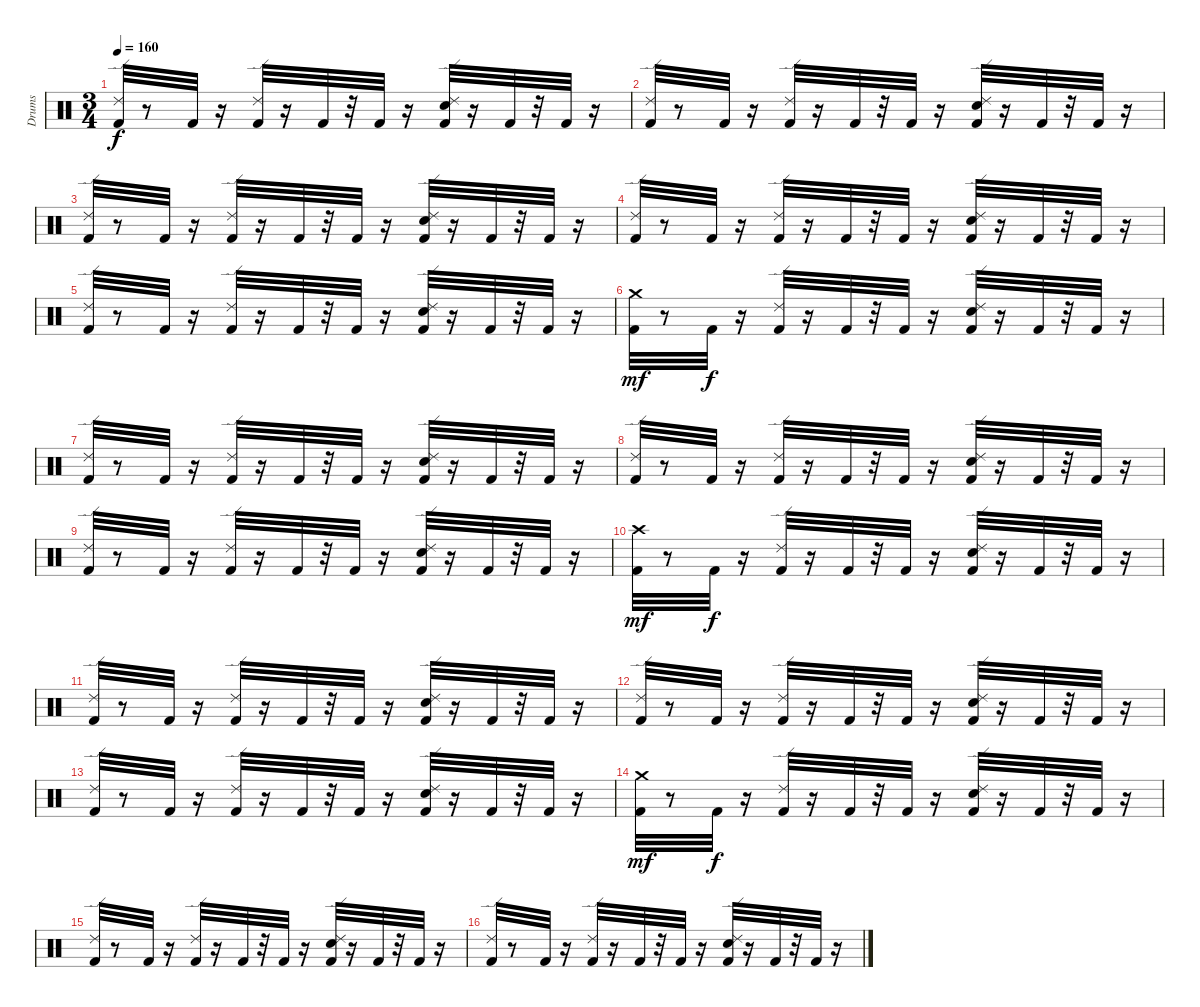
\track ("Drums" "Drums") {instrument percussion}
\staff {score}
\articulation defaults
\ts (3 4)
\tempo 160
\clef neutral
\ks c
("Kick (hit) 2" "Ride (edge) 2").32{dy f} r.8 "Kick (hit) 2".32 r.16 ("Kick (hit) 2" "Ride (edge) 2").32 r.16 "Kick (hit) 2".32 r.32 "Kick (hit) 2".32 r.16 ("Kick (hit) 2" "Snare (hit) 2" "Ride (edge) 2").32 r.16 "Kick (hit) 2".32 r.32 "Kick (hit) 2".32 r.16 |
("Kick (hit) 2" "Ride (edge) 2").32 r.8 "Kick (hit) 2".32 r.16 ("Kick (hit) 2" "Ride (edge) 2").32 r.16 "Kick (hit) 2".32 r.32 "Kick (hit) 2".32 r.16 ("Kick (hit) 2" "Snare (hit) 2" "Ride (edge) 2").32 r.16 "Kick (hit) 2".32 r.32 "Kick (hit) 2".32 r.16 |
("Kick (hit) 2" "Ride (edge) 2").32 r.8 "Kick (hit) 2".32 r.16 ("Kick (hit) 2" "Ride (edge) 2").32 r.16 "Kick (hit) 2".32 r.32 "Kick (hit) 2".32 r.16 ("Kick (hit) 2" "Snare (hit) 2" "Ride (edge) 2").32 r.16 "Kick (hit) 2".32 r.32 "Kick (hit) 2".32 r.16 |
("Kick (hit) 2" "Ride (edge) 2").32 r.8 "Kick (hit) 2".32 r.16 ("Kick (hit) 2" "Ride (edge) 2").32 r.16 "Kick (hit) 2".32 r.32 "Kick (hit) 2".32 r.16 ("Kick (hit) 2" "Snare (hit) 2" "Ride (edge) 2").32 r.16 "Kick (hit) 2".32 r.32 "Kick (hit) 2".32 r.16 |
("Kick (hit) 2" "Ride (edge) 2").32 r.8 "Kick (hit) 2".32 r.16 ("Kick (hit) 2" "Ride (edge) 2").32 r.16 "Kick (hit) 2".32 r.32 "Kick (hit) 2".32 r.16 ("Kick (hit) 2" "Snare (hit) 2" "Ride (edge) 2").32 r.16 "Kick (hit) 2".32 r.32 "Kick (hit) 2".32 r.16 |
("Kick (hit) 2" "Crash medium (hit)").32{dy mf} r.8 "Kick (hit) 2".32{dy f} r.16 ("Kick (hit) 2" "Ride (edge) 2").32 r.16 "Kick (hit) 2".32 r.32 "Kick (hit) 2".32 r.16 ("Kick (hit) 2" "Snare (hit) 2" "Ride (edge) 2").32 r.16 "Kick (hit) 2".32 r.32 "Kick (hit) 2".32 r.16 |
("Kick (hit) 2" "Ride (edge) 2").32 r.8 "Kick (hit) 2".32 r.16 ("Kick (hit) 2" "Ride (edge) 2").32 r.16 "Kick (hit) 2".32 r.32 "Kick (hit) 2".32 r.16 ("Kick (hit) 2" "Snare (hit) 2" "Ride (edge) 2").32 r.16 "Kick (hit) 2".32 r.32 "Kick (hit) 2".32 r.16 |
("Kick (hit) 2" "Ride (edge) 2").32 r.8 "Kick (hit) 2".32 r.16 ("Kick (hit) 2" "Ride (edge) 2").32 r.16 "Kick (hit) 2".32 r.32 "Kick (hit) 2".32 r.16 ("Kick (hit) 2" "Snare (hit) 2" "Ride (edge) 2").32 r.16 "Kick (hit) 2".32 r.32 "Kick (hit) 2".32 r.16 |
("Kick (hit) 2" "Ride (edge) 2").32 r.8 "Kick (hit) 2".32 r.16 ("Kick (hit) 2" "Ride (edge) 2").32 r.16 "Kick (hit) 2".32 r.32 "Kick (hit) 2".32 r.16 ("Kick (hit) 2" "Snare (hit) 2" "Ride (edge) 2").32 r.16 "Kick (hit) 2".32 r.32 "Kick (hit) 2".32 r.16 |
("Kick (hit) 2" "Crash high (hit)").32{dy mf} r.8 "Kick (hit) 2".32{dy f} r.16 ("Kick (hit) 2" "Ride (edge) 2").32 r.16 "Kick (hit) 2".32 r.32 "Kick (hit) 2".32 r.16 ("Kick (hit) 2" "Snare (hit) 2" "Ride (edge) 2").32 r.16 "Kick (hit) 2".32 r.32 "Kick (hit) 2".32 r.16 |
("Kick (hit) 2" "Ride (edge) 2").32 r.8 "Kick (hit) 2".32 r.16 ("Kick (hit) 2" "Ride (edge) 2").32 r.16 "Kick (hit) 2".32 r.32 "Kick (hit) 2".32 r.16 ("Kick (hit) 2" "Snare (hit) 2" "Ride (edge) 2").32 r.16 "Kick (hit) 2".32 r.32 "Kick (hit) 2".32 r.16 |
("Kick (hit) 2" "Ride (edge) 2").32 r.8 "Kick (hit) 2".32 r.16 ("Kick (hit) 2" "Ride (edge) 2").32 r.16 "Kick (hit) 2".32 r.32 "Kick (hit) 2".32 r.16 ("Kick (hit) 2" "Snare (hit) 2" "Ride (edge) 2").32 r.16 "Kick (hit) 2".32 r.32 "Kick (hit) 2".32 r.16 |
("Kick (hit) 2" "Ride (edge) 2").32 r.8 "Kick (hit) 2".32 r.16 ("Kick (hit) 2" "Ride (edge) 2").32 r.16 "Kick (hit) 2".32 r.32 "Kick (hit) 2".32 r.16 ("Kick (hit) 2" "Snare (hit) 2" "Ride (edge) 2").32 r.16 "Kick (hit) 2".32 r.32 "Kick (hit) 2".32 r.16 |
("Kick (hit) 2" "Crash medium (hit)").32{dy mf} r.8 "Kick (hit) 2".32{dy f} r.16 ("Kick (hit) 2" "Ride (edge) 2").32 r.16 "Kick (hit) 2".32 r.32 "Kick (hit) 2".32 r.16 ("Kick (hit) 2" "Snare (hit) 2" "Ride (edge) 2").32 r.16 "Kick (hit) 2".32 r.32 "Kick (hit) 2".32 r.16 |
("Kick (hit) 2" "Ride (edge) 2").32 r.8 "Kick (hit) 2".32 r.16 ("Kick (hit) 2" "Ride (edge) 2").32 r.16 "Kick (hit) 2".32 r.32 "Kick (hit) 2".32 r.16 ("Kick (hit) 2" "Snare (hit) 2" "Ride (edge) 2").32 r.16 "Kick (hit) 2".32 r.32 "Kick (hit) 2".32 r.16 |
("Kick (hit) 2" "Ride (edge) 2").32 r.8 "Kick (hit) 2".32 r.16 ("Kick (hit) 2" "Ride (edge) 2").32 r.16 "Kick (hit) 2".32 r.32 "Kick (hit) 2".32 r.16 ("Kick (hit) 2" "Snare (hit) 2" "Ride (edge) 2").32 r.16 "Kick (hit) 2".32 r.32 "Kick (hit) 2".32 r.16
